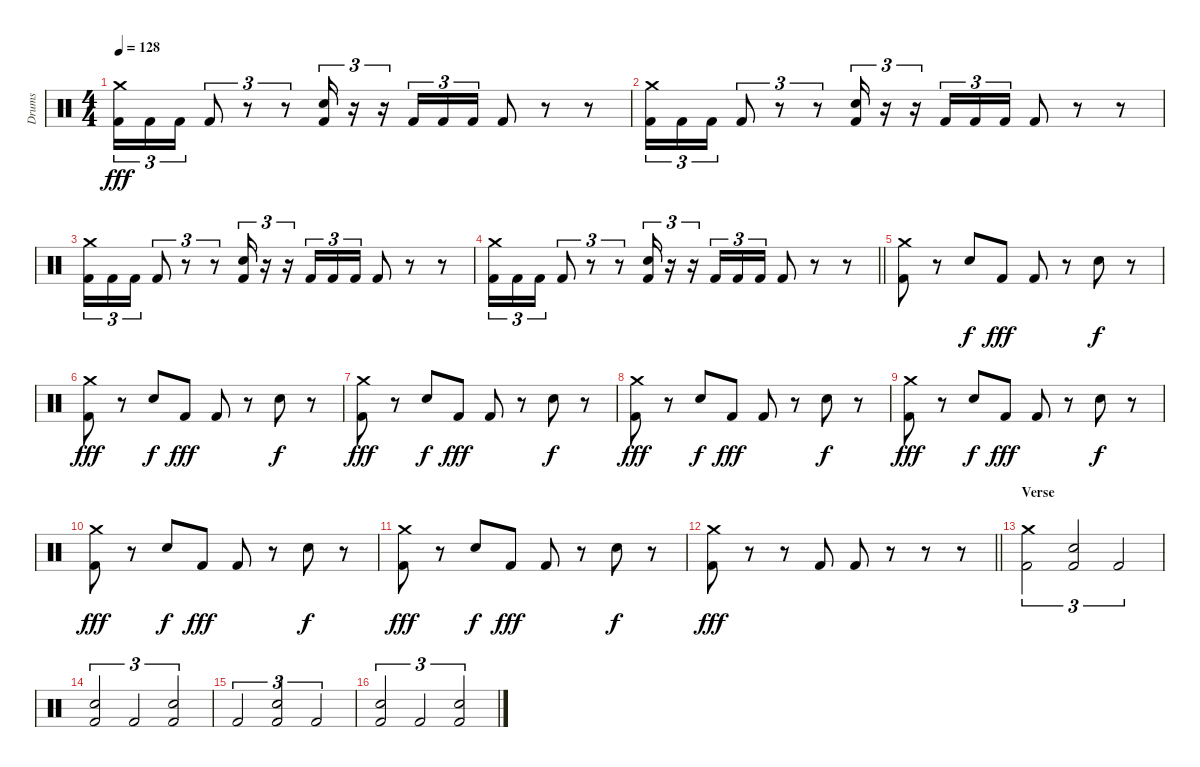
\track ("Drums" "Drums") {instrument percussion}
\staff {score}
\articulation defaults
\ts (4 4)
\tempo 128
\clef neutral
\ks c
("Crash medium (hit)" "Kick (hit) 2").16{tu (3 2) dy fff} "Kick (hit) 2".16{tu (3 2)} "Kick (hit) 2".16{tu (3 2)} "Kick (hit) 2".8{tu (3 2)} r.8{tu (3 2)} r.8{tu (3 2)} ("Snare (hit) 2" "Kick (hit) 2").16{tu (3 2)} r.16{tu (3 2)} r.16{tu (3 2)} "Kick (hit) 2".16{tu (3 2)} "Kick (hit) 2".16{tu (3 2)} "Kick (hit) 2".16{tu (3 2)} "Kick (hit) 2".8 r.8 r.8 |
("Crash medium (hit)" "Kick (hit) 2").16{tu (3 2)} "Kick (hit) 2".16{tu (3 2)} "Kick (hit) 2".16{tu (3 2)} "Kick (hit) 2".8{tu (3 2)} r.8{tu (3 2)} r.8{tu (3 2)} ("Snare (hit) 2" "Kick (hit) 2").16{tu (3 2)} r.16{tu (3 2)} r.16{tu (3 2)} "Kick (hit) 2".16{tu (3 2)} "Kick (hit) 2".16{tu (3 2)} "Kick (hit) 2".16{tu (3 2)} "Kick (hit) 2".8 r.8 r.8 |
("Crash medium (hit)" "Kick (hit) 2").16{tu (3 2)} "Kick (hit) 2".16{tu (3 2)} "Kick (hit) 2".16{tu (3 2)} "Kick (hit) 2".8{tu (3 2)} r.8{tu (3 2)} r.8{tu (3 2)} ("Snare (hit) 2" "Kick (hit) 2").16{tu (3 2)} r.16{tu (3 2)} r.16{tu (3 2)} "Kick (hit) 2".16{tu (3 2)} "Kick (hit) 2".16{tu (3 2)} "Kick (hit) 2".16{tu (3 2)} "Kick (hit) 2".8 r.8 r.8 |
\barLineRight lightlight
("Crash medium (hit)" "Kick (hit) 2").16{tu (3 2)} "Kick (hit) 2".16{tu (3 2)} "Kick (hit) 2".16{tu (3 2)} "Kick (hit) 2".8{tu (3 2)} r.8{tu (3 2)} r.8{tu (3 2)} ("Snare (hit) 2" "Kick (hit) 2").16{tu (3 2)} r.16{tu (3 2)} r.16{tu (3 2)} "Kick (hit) 2".16{tu (3 2)} "Kick (hit) 2".16{tu (3 2)} "Kick (hit) 2".16{tu (3 2)} "Kick (hit) 2".8 r.8 r.8 |
\section ("" "")
("Crash medium (hit)" "Kick (hit) 2").8 r.8 "Snare (hit) 2".8{dy f} "Kick (hit) 2".8{dy fff} "Kick (hit) 2".8 r.8 "Snare (hit) 2".8{dy f} r.8 |
("Crash medium (hit)" "Kick (hit) 2").8{dy fff} r.8 "Snare (hit) 2".8{dy f} "Kick (hit) 2".8{dy fff} "Kick (hit) 2".8 r.8 "Snare (hit) 2".8{dy f} r.8 |
("Crash medium (hit)" "Kick (hit) 2").8{dy fff} r.8 "Snare (hit) 2".8{dy f} "Kick (hit) 2".8{dy fff} "Kick (hit) 2".8 r.8 "Snare (hit) 2".8{dy f} r.8 |
("Crash medium (hit)" "Kick (hit) 2").8{dy fff} r.8 "Snare (hit) 2".8{dy f} "Kick (hit) 2".8{dy fff} "Kick (hit) 2".8 r.8 "Snare (hit) 2".8{dy f} r.8 |
("Crash medium (hit)" "Kick (hit) 2").8{dy fff} r.8 "Snare (hit) 2".8{dy f} "Kick (hit) 2".8{dy fff} "Kick (hit) 2".8 r.8 "Snare (hit) 2".8{dy f} r.8 |
("Crash medium (hit)" "Kick (hit) 2").8{dy fff} r.8 "Snare (hit) 2".8{dy f} "Kick (hit) 2".8{dy fff} "Kick (hit) 2".8 r.8 "Snare (hit) 2".8{dy f} r.8 |
("Crash medium (hit)" "Kick (hit) 2").8{dy fff} r.8 "Snare (hit) 2".8{dy f} "Kick (hit) 2".8{dy fff} "Kick (hit) 2".8 r.8 "Snare (hit) 2".8{dy f} r.8 |
\barLineRight lightlight
("Crash medium (hit)" "Kick (hit) 2").8{dy fff} r.8 r.8 "Kick (hit) 2".8 "Kick (hit) 2".8 r.8 r.8 r.8 |
\section ("" "Verse")
("Crash medium (hit)" "Kick (hit) 2").2{tu (3 2)} ("Snare (hit) 2" "Kick (hit) 2").2{tu (3 2)} "Kick (hit) 2".2{tu (3 2)} |
("Snare (hit) 2" "Kick (hit) 2").2{tu (3 2)} "Kick (hit) 2".2{tu (3 2)} ("Snare (hit) 2" "Kick (hit) 2").2{tu (3 2)} |
"Kick (hit) 2".2{tu (3 2)} ("Snare (hit) 2" "Kick (hit) 2").2{tu (3 2)} "Kick (hit) 2".2{tu (3 2)} |
("Snare (hit) 2" "Kick (hit) 2").2{tu (3 2)} "Kick (hit) 2".2{tu (3 2)} ("Snare (hit) 2" "Kick (hit) 2").2{tu (3 2)}
